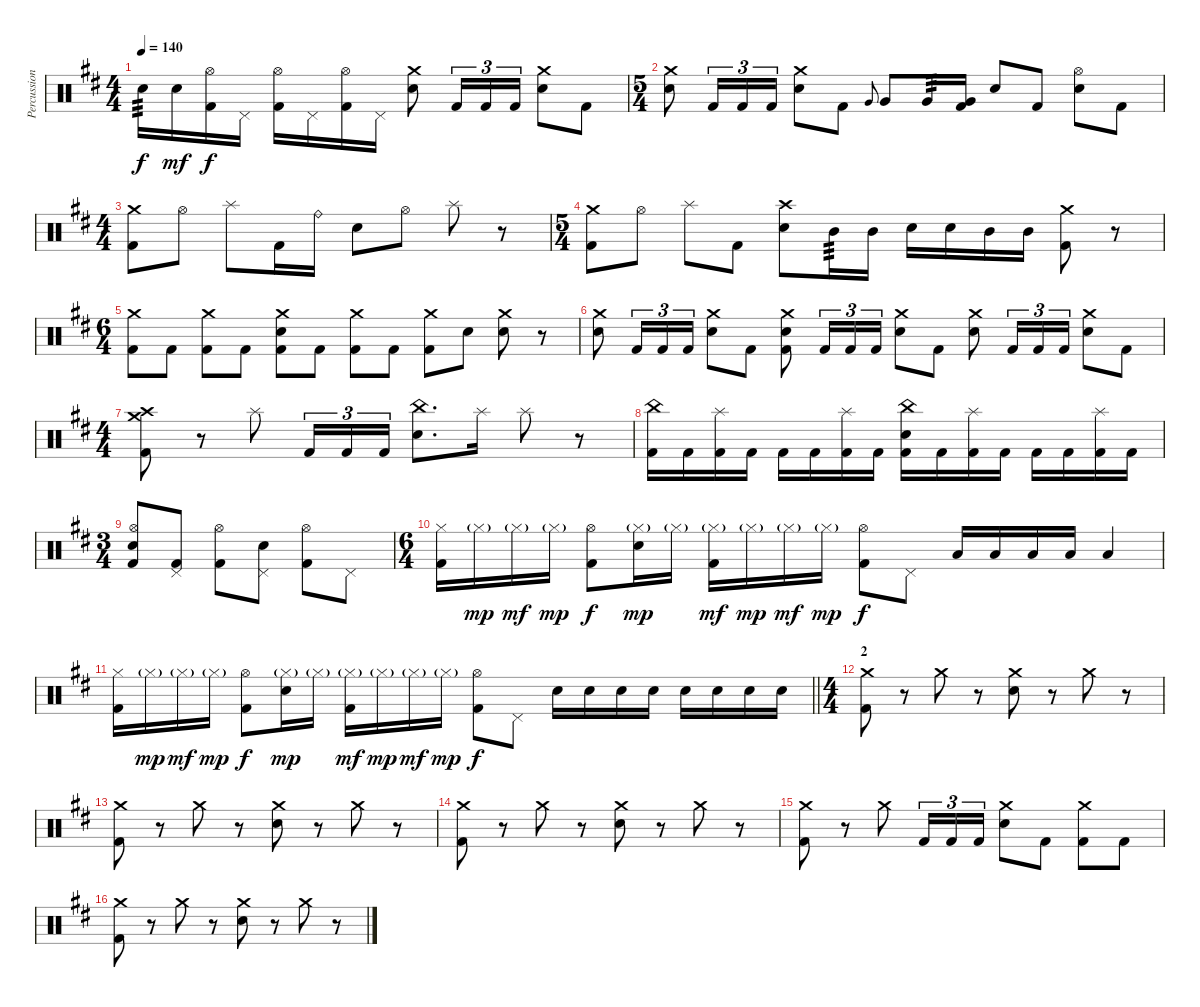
\track ("Percussion" "Percussion") {instrument percussion}
\staff {score}
\articulation defaults
\ts (4 4)
\tempo 140
\clef neutral
\ks bminor "Snare (hit) 2".16{tp 3 dy f} "Snare (hit) 2".16{dy mf}
("Hi-Hat (open)" "Kick (hit) 2").16{dy f} "Pedal Hi-Hat (hit)".16 ("Hi-Hat (open)" "Kick (hit) 2").16 "Pedal Hi-Hat (hit)".16 ("Hi-Hat (open)" "Kick (hit) 2").16 "Pedal Hi-Hat (hit)".16 ("Crash medium (hit)" "Snare (hit) 2").8 "Kick (hit) 2".16{tu (3 2)} "Kick (hit) 2".16{tu (3 2)} "Kick (hit) 2".16{tu (3 2)} ("Crash medium (hit)" "Snare (hit) 2").8 "Kick (hit) 2".8 |
\ts (5 4)
("Crash medium (hit)" "Snare (hit) 2").8 "Kick (hit) 2".16{tu (3 2)} "Kick (hit) 2".16{tu (3 2)} "Kick (hit) 2".16{tu (3 2)} ("Crash medium (hit)" "Snare (hit) 2").8 "Kick (hit) 2".8 "Very Low Tom (hit)".8{gr onbeat} "Very Low Tom (hit)".8 "Very Low Tom (hit)".16{tp 3} ("Very Low Tom (hit)" "Kick (hit) 2").16 "Snare (hit) 2".8 "Kick (hit) 2".8 ("Hi-Hat (open)" "Snare (hit) 2").8 "Kick (hit) 2".8 |
\ts (4 4)
("Crash medium (hit)" "Kick (hit) 2").8 "Hi-Hat (open)".8 "Splash (hit)".8 "Kick (hit) 2".16 "Ride (bell)".16 "Snare (hit) 2".8 "Hi-Hat (open)".8 "Splash (hit)".8 r.8 |
\ts (5 4)
("Crash medium (hit)" "Kick (hit) 2").8 "Hi-Hat (open)".8 "Splash (hit)".8 "Kick (hit) 2".8 ("Crash high (hit)" "Snare (hit) 2").8 "Mid Tom (hit)".16{tp 3} "Mid Tom (hit)".16 "Snare (hit) 2".16 "Snare (hit) 2".16 "Mid Tom (hit)".16 "Mid Tom (hit)".16 ("Crash medium (hit)" "Kick (hit) 2").8 r.8 |
\ts (6 4)
("Crash medium (hit)" "Kick (hit) 2").8 "Kick (hit) 2".8 ("Crash medium (hit)" "Kick (hit) 2").8 "Kick (hit) 2".8 ("Crash medium (hit)" "Snare (hit) 2" "Kick (hit) 2").8 "Kick (hit) 2".8 ("Crash medium (hit)" "Kick (hit) 2").8 "Kick (hit) 2".8 ("Crash medium (hit)" "Kick (hit) 2").8 "Snare (hit) 2".8 ("Crash medium (hit)" "Snare (hit) 2").8 r.8 |
("Crash medium (hit)" "Snare (hit) 2").8 "Kick (hit) 2".16{tu (3 2)} "Kick (hit) 2".16{tu (3 2)} "Kick (hit) 2".16{tu (3 2)} ("Crash medium (hit)" "Snare (hit) 2").8 "Kick (hit) 2".8 ("Crash medium (hit)" "Snare (hit) 2" "Kick (hit) 2").8 "Kick (hit) 2".16{tu (3 2)} "Kick (hit) 2".16{tu (3 2)} "Kick (hit) 2".16{tu (3 2)} ("Crash medium (hit)" "Snare (hit) 2").8 "Kick (hit) 2".8 ("Crash medium (hit)" "Snare (hit) 2").8 "Kick (hit) 2".16{tu (3 2)} "Kick (hit) 2".16{tu (3 2)} "Kick (hit) 2".16{tu (3 2)} ("Crash medium (hit)" "Snare (hit) 2").8 "Kick (hit) 2".8 |
\ts (4 4)
("Crash medium (hit)" "Crash high (hit)" "Kick (hit) 2").8 r.8 "Splash (hit)".8 "Kick (hit) 2".16{tu (3 2)} "Kick (hit) 2".16{tu (3 2)} "Kick (hit) 2".16{tu (3 2)} ("China (hit)" "Snare (hit) 2").8{d} "Splash (hit)".16 "Splash (hit)".8 r.8 |
("China (hit)" "Kick (hit) 2").16 "Kick (hit) 2".16 ("Splash (hit)" "Kick (hit) 2").16 "Kick (hit) 2".16 "Kick (hit) 2".16 "Kick (hit) 2".16 ("Splash (hit)" "Kick (hit) 2").16 "Kick (hit) 2".16 ("China (hit)" "Snare (hit) 2" "Kick (hit) 2").16 "Kick (hit) 2".16 ("Splash (hit)" "Kick (hit) 2").16 "Kick (hit) 2".16 "Kick (hit) 2".16 "Kick (hit) 2".16 ("Splash (hit)" "Kick (hit) 2").16 "Kick (hit) 2".16 |
\ts (3 4)
("Hi-Hat (open)" "Snare (hit) 2" "Kick (hit) 2").8 ("Pedal Hi-Hat (hit)" "Kick (hit) 2").8 ("Hi-Hat (open)" "Kick (hit) 2").8 ("Pedal Hi-Hat (hit)" "Snare (hit) 2").8 ("Hi-Hat (open)" "Kick (hit) 2").8 "Pedal Hi-Hat (hit)".8 |
\ts (6 4)
("Hi-Hat (closed)" "Kick (hit) 2").16 "Hi-Hat (closed)"{g}.16{dy mp} "Hi-Hat (closed)"{g}.16{dy mf} "Hi-Hat (closed)"{g}.16{dy mp} ("Hi-Hat (open)" "Kick (hit) 2").8{dy f} ("Hi-Hat (closed)"{g} "Snare (hit) 2").16{dy mp} "Hi-Hat (closed)"{g}.16 ("Hi-Hat (closed)"{g} "Kick (hit) 2").16{dy mf} "Hi-Hat (closed)"{g}.16{dy mp} "Hi-Hat (closed)"{g}.16{dy mf} "Hi-Hat (closed)"{g}.16{dy mp} ("Hi-Hat (open)" "Kick (hit) 2").8{dy f} "Pedal Hi-Hat (hit)".8 "Low Tom (hit)".16 "Low Tom (hit)".16 "Low Tom (hit)".16 "Low Tom (hit)".16 "Low Tom (hit)".4 |
\barLineRight lightlight
("Hi-Hat (closed)" "Kick (hit) 2").16 "Hi-Hat (closed)"{g}.16{dy mp} "Hi-Hat (closed)"{g}.16{dy mf} "Hi-Hat (closed)"{g}.16{dy mp} ("Hi-Hat (open)" "Kick (hit) 2").8{dy f} ("Hi-Hat (closed)"{g} "Snare (hit) 2").16{dy mp} "Hi-Hat (closed)"{g}.16 ("Hi-Hat (closed)"{g} "Kick (hit) 2").16{dy mf} "Hi-Hat (closed)"{g}.16{dy mp} "Hi-Hat (closed)"{g}.16{dy mf} "Hi-Hat (closed)"{g}.16{dy mp} ("Hi-Hat (open)" "Kick (hit) 2").8{dy f} "Pedal Hi-Hat (hit)".8 "Snare (hit) 2".16 "Snare (hit) 2".16 "Snare (hit) 2".16 "Snare (hit) 2".16 "Snare (hit) 2".16 "Snare (hit) 2".16 "Snare (hit) 2".16 "Snare (hit) 2".16 |
\ts (4 4)
\section ("" "2")
("Crash medium (hit)" "Kick (hit) 2").8 r.8 "Crash medium (hit)".8 r.8 ("Crash medium (hit)" "Snare (hit) 2").8 r.8 "Crash medium (hit)".8 r.8 |
("Crash medium (hit)" "Kick (hit) 2").8 r.8 "Crash medium (hit)".8 r.8 ("Crash medium (hit)" "Snare (hit) 2").8 r.8 "Crash medium (hit)".8 r.8 |
("Crash medium (hit)" "Kick (hit) 2").8 r.8 "Crash medium (hit)".8 r.8 ("Crash medium (hit)" "Snare (hit) 2").8 r.8 "Crash medium (hit)".8 r.8 |
("Crash medium (hit)" "Kick (hit) 2").8 r.8 "Crash medium (hit)".8 "Kick (hit) 2".16{tu (3 2)} "Kick (hit) 2".16{tu (3 2)} "Kick (hit) 2".16{tu (3 2)} ("Crash medium (hit)" "Snare (hit) 2").8 "Kick (hit) 2".8 ("Crash medium (hit)" "Kick (hit) 2").8 "Kick (hit) 2".8 |
("Crash medium (hit)" "Kick (hit) 2").8 r.8 "Crash medium (hit)".8 r.8 ("Crash medium (hit)" "Snare (hit) 2").8 r.8 "Crash medium (hit)".8 r.8
